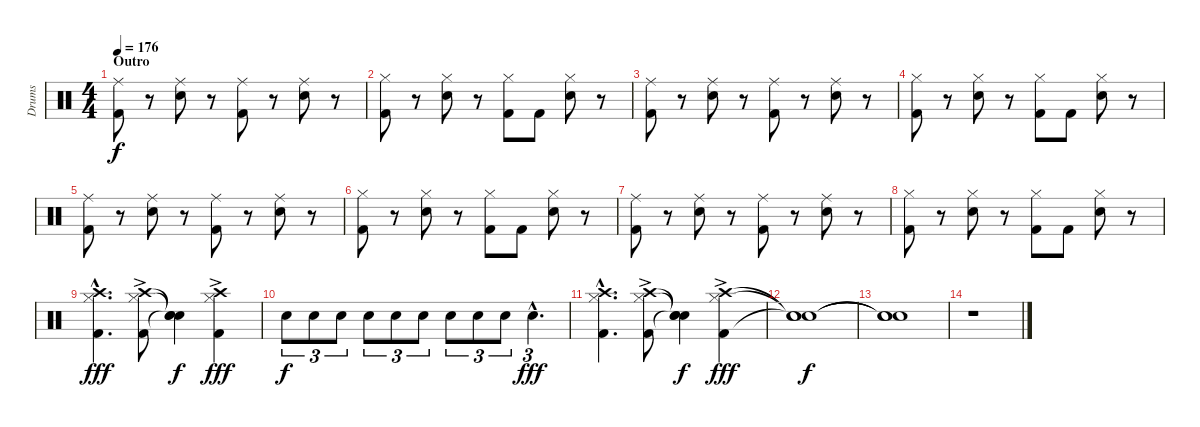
\track ("Drums" "Drums") {instrument percussion}
\staff {score}
\articulation defaults
\ts (4 4)
\section ("" "Outro")
\tempo 176
\clef neutral
\ks c
("Ride (middle)" "Kick (hit) 2").8{dy f} r.8 ("Ride (middle)" "Electric Snare (hit)").8 r.8 ("Ride (middle)" "Kick (hit) 2").8 r.8 ("Ride (middle)" "Electric Snare (hit)").8 r.8 |
("Hi-Hat (closed)" "Kick (hit) 2").8 r.8 ("Hi-Hat (closed)" "Electric Snare (hit)").8 r.8 ("Hi-Hat (closed)" "Kick (hit) 2").8 "Kick (hit) 2".8 ("Hi-Hat (closed)" "Electric Snare (hit)").8 r.8 |
("Ride (middle)" "Kick (hit) 2").8 r.8 ("Ride (middle)" "Electric Snare (hit)").8 r.8 ("Ride (middle)" "Kick (hit) 2").8 r.8 ("Ride (middle)" "Electric Snare (hit)").8 r.8 |
("Hi-Hat (closed)" "Kick (hit) 2").8 r.8 ("Hi-Hat (closed)" "Electric Snare (hit)").8 r.8 ("Hi-Hat (closed)" "Kick (hit) 2").8 "Kick (hit) 2".8 ("Hi-Hat (closed)" "Electric Snare (hit)").8 r.8 |
("Ride (middle)" "Kick (hit) 2").8 r.8 ("Ride (middle)" "Electric Snare (hit)").8 r.8 ("Ride (middle)" "Kick (hit) 2").8 r.8 ("Ride (middle)" "Electric Snare (hit)").8 r.8 |
("Hi-Hat (closed)" "Kick (hit) 2").8 r.8 ("Hi-Hat (closed)" "Electric Snare (hit)").8 r.8 ("Hi-Hat (closed)" "Kick (hit) 2").8 "Kick (hit) 2".8 ("Hi-Hat (closed)" "Electric Snare (hit)").8 r.8 |
("Ride (middle)" "Kick (hit) 2").8 r.8 ("Ride (middle)" "Electric Snare (hit)").8 r.8 ("Ride (middle)" "Kick (hit) 2").8 r.8 ("Ride (middle)" "Electric Snare (hit)").8 r.8 |
("Hi-Hat (closed)" "Kick (hit) 2").8 r.8 ("Hi-Hat (closed)" "Electric Snare (hit)").8 r.8 ("Hi-Hat (closed)" "Kick (hit) 2").8 "Kick (hit) 2".8 ("Hi-Hat (closed)" "Electric Snare (hit)").8 r.8 |
("Crash high (hit)"{hac} "Hi-Hat (closed)"{hac} "Kick (hit) 2"{hac}).4{d dy fff} ("Crash high (hit)"{ac} "Hi-Hat (closed)" "Kick (hit) 2").8 ("Snare (hit)"{t} "Snare (hit)"{t} "Snare (hit)"{t}).4{dy f} ("Crash high (hit)"{ac} "Hi-Hat (closed)" "Kick (hit) 2").4{dy fff} |
"Snare (hit) 2".8{tu (3 2) dy f} "Snare (hit) 2".8{tu (3 2)} "Snare (hit) 2".8{tu (3 2)} "Snare (hit) 2".8{tu (3 2)} "Snare (hit) 2".8{tu (3 2)} "Snare (hit) 2".8{tu (3 2)} "Snare (hit) 2".8{tu (3 2)} "Snare (hit) 2".8{tu (3 2)} "Snare (hit) 2".8{tu (3 2)} "Snare (hit) 2"{hac}.4{d tu (3 2) dy fff} |
("Crash high (hit)"{hac} "Hi-Hat (closed)"{hac} "Kick (hit) 2"{hac}).4{d} ("Crash high (hit)"{ac} "Hi-Hat (closed)" "Kick (hit) 2").8 ("Snare (hit)"{t} "Snare (hit)"{t} "Snare (hit)"{t}).4{dy f} ("Crash high (hit)"{ac} "Hi-Hat (closed)" "Kick (hit) 2").4{dy fff} |
("Snare (hit)"{t} "Snare (hit)"{t} "Snare (hit)"{t}).1{dy f} |
("Snare (hit)"{t} "Snare (hit)"{t} "Snare (hit)"{t}).1 |
r.1
